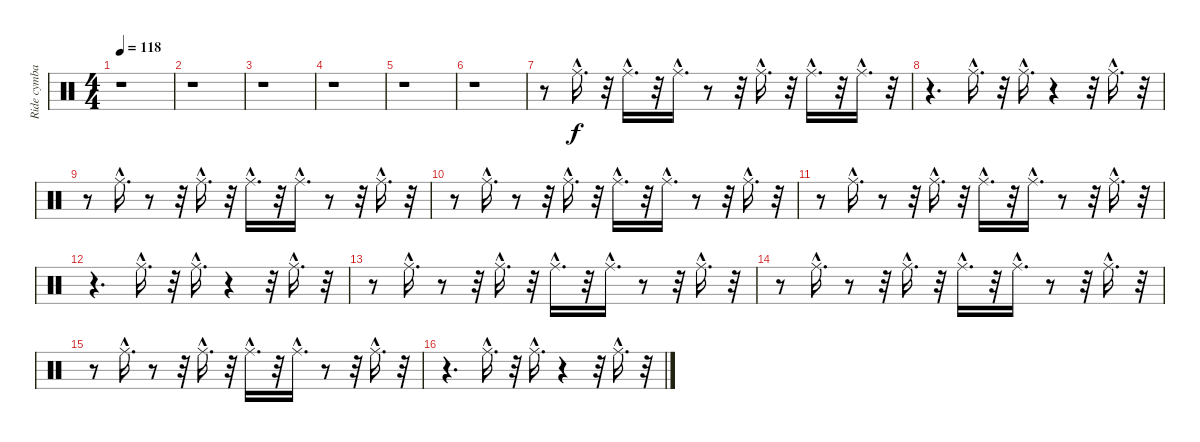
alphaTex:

\track ("Ride cymbal         " "Ride cymba") {instrument percussion}
\staff {score}
\articulation defaults
\ts (4 4)
\tempo 118
\clef neutral
\ks c
r.1{dy f} |
r.1 |
r.1 |
r.1 |
r.1 |
r.1 |
r.8 "Ride (middle)"{hac}.16{d} r.32 "Ride (middle)"{hac}.16{d} r.32 "Ride (middle)"{hac}.16{d} r.8 r.32 "Ride (middle)"{hac}.16{d} r.32 "Ride (middle)"{hac}.16{d} r.32 "Ride (middle)"{hac}.16{d} r.32 |
r.4{d} "Ride (middle)"{hac}.16{d} r.32 "Ride (middle)"{hac}.16{d} r.4 r.32 "Ride (middle)"{hac}.16{d} r.32 |
r.8 "Ride (middle)"{hac}.16{d} r.8 r.32 "Ride (middle)"{hac}.16{d} r.32 "Ride (middle)"{hac}.16{d} r.32 "Ride (middle)"{hac}.16{d} r.8 r.32 "Ride (middle)"{hac}.16{d} r.32 |
r.8 "Ride (middle)"{hac}.16{d} r.8 r.32 "Ride (middle)"{hac}.16{d} r.32 "Ride (middle)"{hac}.16{d} r.32 "Ride (middle)"{hac}.16{d} r.8 r.32 "Ride (middle)"{hac}.16{d} r.32 |
r.8 "Ride (middle)"{hac}.16{d} r.8 r.32 "Ride (middle)"{hac}.16{d} r.32 "Ride (middle)"{hac}.16{d} r.32 "Ride (middle)"{hac}.16{d} r.8 r.32 "Ride (middle)"{hac}.16{d} r.32 |
r.4{d} "Ride (middle)"{hac}.16{d} r.32 "Ride (middle)"{hac}.16{d} r.4 r.32 "Ride (middle)"{hac}.16{d} r.32 |
r.8 "Ride (middle)"{hac}.16{d} r.8 r.32 "Ride (middle)"{hac}.16{d} r.32 "Ride (middle)"{hac}.16{d} r.32 "Ride (middle)"{hac}.16{d} r.8 r.32 "Ride (middle)"{hac}.16{d} r.32 |
r.8 "Ride (middle)"{hac}.16{d} r.8 r.32 "Ride (middle)"{hac}.16{d} r.32 "Ride (middle)"{hac}.16{d} r.32 "Ride (middle)"{hac}.16{d} r.8 r.32 "Ride (middle)"{hac}.16{d} r.32 |
r.8 "Ride (middle)"{hac}.16{d} r.8 r.32 "Ride (middle)"{hac}.16{d} r.32 "Ride (middle)"{hac}.16{d} r.32 "Ride (middle)"{hac}.16{d} r.8 r.32 "Ride (middle)"{hac}.16{d} r.32 |
r.4{d} "Ride (middle)"{hac}.16{d} r.32 "Ride (middle)"{hac}.16{d} r.4 r.32 "Ride (middle)"{hac}.16{d} r.32
